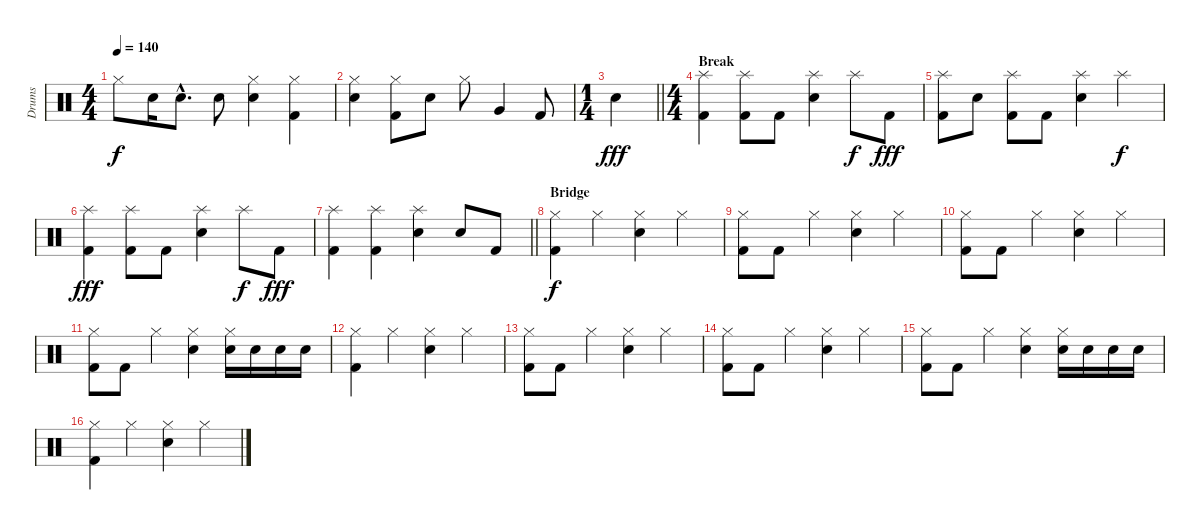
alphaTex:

\track ("Drums" "Drums") {instrument percussion}
\staff {score}
\articulation defaults
\ts (4 4)
\tempo 140
\clef neutral
\ks c "Hi-Hat (closed)".8{dy f} "Snare (hit) 2".16 "Snare (hit) 2"{hac}.8{d} "Snare (hit) 2".8
("Hi-Hat (closed)" "Snare (hit) 2").4 ("Hi-Hat (closed)" "Kick (hit) 2").4 |
("Hi-Hat (closed)" "Snare (hit) 2").4 ("Hi-Hat (closed)" "Kick (hit) 2").8 "Snare (hit) 2".8 "Hi-Hat (closed)".8 "Very Low Tom (hit)".4 "Kick (hit) 2".8 |
\ts (1 4)
\barLineRight lightlight "Snare (hit) 2".4{dy fff}
|
\ts (4 4)
\section ("" "Break")
("Splash (hit)" "Kick (hit) 2").4 ("Splash (hit)" "Kick (hit) 2").8 "Kick (hit) 2".8 ("Splash (hit)" "Snare (hit) 2").4 "Splash (hit)".8{dy f} "Kick (hit) 2".8{dy fff} |
("Splash (hit)" "Kick (hit) 2").8 "Snare (hit) 2".8 ("Splash (hit)" "Kick (hit) 2").8 "Kick (hit) 2".8 ("Splash (hit)" "Snare (hit) 2").4 "Splash (hit)".4{dy f} |
("Splash (hit)" "Kick (hit) 2").4{dy fff} ("Splash (hit)" "Kick (hit) 2").8 "Kick (hit) 2".8 ("Splash (hit)" "Snare (hit) 2").4 "Splash (hit)".8{dy f} "Kick (hit) 2".8{dy fff} |
\barLineRight lightlight
("Splash (hit)" "Kick (hit) 2").4 ("Splash (hit)" "Kick (hit) 2").4 ("Splash (hit)" "Snare (hit) 2").4 "Electric Snare (hit)".8 "Kick (hit) 2".8 |
\section ("" "Bridge")
("Hi-Hat (closed)" "Kick (hit) 2").4{dy f} "Hi-Hat (closed)".4 ("Hi-Hat (closed)" "Snare (hit) 2").4 "Hi-Hat (closed)".4 |
("Hi-Hat (closed)" "Kick (hit) 2").8 "Kick (hit) 2".8 "Hi-Hat (closed)".4 ("Hi-Hat (closed)" "Snare (hit) 2").4 "Hi-Hat (closed)".4 |
("Hi-Hat (closed)" "Kick (hit) 2").8 "Kick (hit) 2".8 "Hi-Hat (closed)".4 ("Hi-Hat (closed)" "Snare (hit) 2").4 "Hi-Hat (closed)".4 |
("Hi-Hat (closed)" "Kick (hit) 2").8 "Kick (hit) 2".8 "Hi-Hat (closed)".4 ("Hi-Hat (closed)" "Snare (hit) 2").4 ("Hi-Hat (closed)" "Electric Snare (hit)").16 "Electric Snare (hit)".16 "Electric Snare (hit)".16 "Electric Snare (hit)".16 |
("Hi-Hat (closed)" "Kick (hit) 2").4 "Hi-Hat (closed)".4 ("Hi-Hat (closed)" "Snare (hit) 2").4 "Hi-Hat (closed)".4 |
("Hi-Hat (closed)" "Kick (hit) 2").8 "Kick (hit) 2".8 "Hi-Hat (closed)".4 ("Hi-Hat (closed)" "Snare (hit) 2").4 "Hi-Hat (closed)".4 |
("Hi-Hat (closed)" "Kick (hit) 2").8 "Kick (hit) 2".8 "Hi-Hat (closed)".4 ("Hi-Hat (closed)" "Snare (hit) 2").4 "Hi-Hat (closed)".4 |
("Hi-Hat (closed)" "Kick (hit) 2").8 "Kick (hit) 2".8 "Hi-Hat (closed)".4 ("Hi-Hat (closed)" "Snare (hit) 2").4 ("Hi-Hat (closed)" "Electric Snare (hit)").16 "Electric Snare (hit)".16 "Electric Snare (hit)".16 "Electric Snare (hit)".16 |
("Hi-Hat (closed)" "Kick (hit) 2").4 "Hi-Hat (closed)".4 ("Hi-Hat (closed)" "Snare (hit) 2").4 "Hi-Hat (closed)".4
